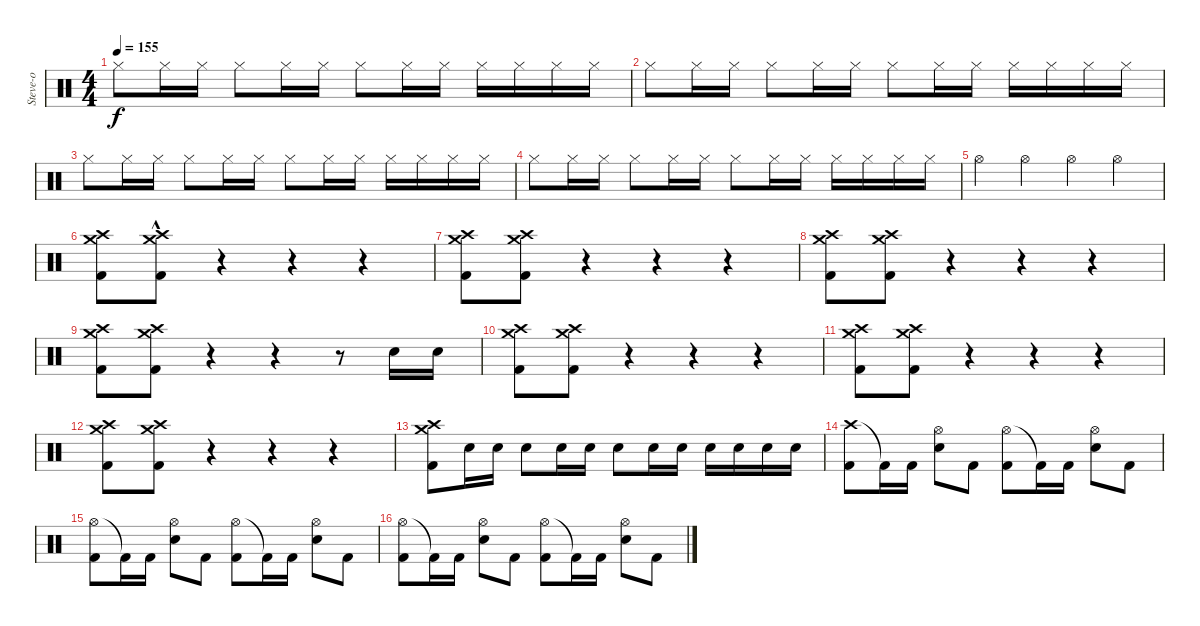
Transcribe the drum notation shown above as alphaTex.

\track ("Steve-o" "Steve-o") {instrument percussion}
\staff {score}
\articulation defaults
\ts (4 4)
\tempo 155
\clef neutral
\ks c "Hi-Hat (closed)".8{dy f} "Hi-Hat (closed)".16 "Hi-Hat (closed)".16 "Hi-Hat (closed)".8 "Hi-Hat (closed)".16 "Hi-Hat (closed)".16 "Hi-Hat (closed)".8 "Hi-Hat (closed)".16 "Hi-Hat (closed)".16 "Hi-Hat (closed)".16 "Hi-Hat (closed)".16 "Hi-Hat (closed)".16 "Hi-Hat (closed)".16
|
"Hi-Hat (closed)".8 "Hi-Hat (closed)".16 "Hi-Hat (closed)".16 "Hi-Hat (closed)".8 "Hi-Hat (closed)".16 "Hi-Hat (closed)".16 "Hi-Hat (closed)".8 "Hi-Hat (closed)".16 "Hi-Hat (closed)".16 "Hi-Hat (closed)".16 "Hi-Hat (closed)".16 "Hi-Hat (closed)".16 "Hi-Hat (closed)".16 |
"Hi-Hat (closed)".8 "Hi-Hat (closed)".16 "Hi-Hat (closed)".16 "Hi-Hat (closed)".8 "Hi-Hat (closed)".16 "Hi-Hat (closed)".16 "Hi-Hat (closed)".8 "Hi-Hat (closed)".16 "Hi-Hat (closed)".16 "Hi-Hat (closed)".16 "Hi-Hat (closed)".16 "Hi-Hat (closed)".16 "Hi-Hat (closed)".16 |
"Hi-Hat (closed)".8 "Hi-Hat (closed)".16 "Hi-Hat (closed)".16 "Hi-Hat (closed)".8 "Hi-Hat (closed)".16 "Hi-Hat (closed)".16 "Hi-Hat (closed)".8 "Hi-Hat (closed)".16 "Hi-Hat (closed)".16 "Hi-Hat (closed)".16 "Hi-Hat (closed)".16 "Hi-Hat (closed)".16 "Hi-Hat (closed)".16 |
"Hi-Hat (open)".4 "Hi-Hat (open)".4 "Hi-Hat (open)".4 "Hi-Hat (open)".4 |
("Crash high (hit)" "Crash medium (hit)" "Kick (hit) 2").8 ("Crash high (hit)" "Crash medium (hit)"{hac} "Kick (hit) 2"{hac}).8 r.4 r.4 r.4 |
("Crash high (hit)" "Crash medium (hit)" "Kick (hit) 2").8 ("Crash high (hit)" "Crash medium (hit)" "Kick (hit) 2").8 r.4 r.4 r.4 |
("Crash high (hit)" "Crash medium (hit)" "Kick (hit) 2").8 ("Crash high (hit)" "Crash medium (hit)" "Kick (hit) 2").8 r.4 r.4 r.4 |
("Crash high (hit)" "Crash medium (hit)" "Kick (hit) 2").8 ("Crash high (hit)" "Crash medium (hit)" "Kick (hit) 2").8 r.4 r.4 r.8 "Electric Snare (hit)".16 "Electric Snare (hit)".16 |
("Crash high (hit)" "Crash medium (hit)" "Kick (hit) 2").8 ("Crash high (hit)" "Crash medium (hit)" "Kick (hit) 2").8 r.4 r.4 r.4 |
("Crash high (hit)" "Crash medium (hit)" "Kick (hit) 2").8 ("Crash high (hit)" "Crash medium (hit)" "Kick (hit) 2").8 r.4 r.4 r.4 |
("Crash high (hit)" "Crash medium (hit)" "Kick (hit) 2").8 ("Crash high (hit)" "Crash medium (hit)" "Kick (hit) 2").8 r.4 r.4 r.4 |
("Crash high (hit)" "Crash medium (hit)" "Kick (hit) 2").8 "Electric Snare (hit)".16 "Electric Snare (hit)".16 "Electric Snare (hit)".8 "Electric Snare (hit)".16 "Electric Snare (hit)".16 "Electric Snare (hit)".8 "Electric Snare (hit)".16 "Electric Snare (hit)".16 "Electric Snare (hit)".16 "Electric Snare (hit)".16 "Electric Snare (hit)".16 "Electric Snare (hit)".16 |
("Crash high (hit)" "Kick (hit) 2").8 "Kick (hit) 2"{t}.16 "Kick (hit) 2".16 ("Hi-Hat (open)" "Electric Snare (hit)").8 "Kick (hit) 2".8 ("Hi-Hat (open)" "Kick (hit) 2").8 "Kick (hit) 2"{t}.16 "Kick (hit) 2".16 ("Hi-Hat (open)" "Electric Snare (hit)").8 "Kick (hit) 2".8 |
("Hi-Hat (open)" "Kick (hit) 2").8 "Kick (hit) 2"{t}.16 "Kick (hit) 2".16 ("Hi-Hat (open)" "Electric Snare (hit)").8 "Kick (hit) 2".8 ("Hi-Hat (open)" "Kick (hit) 2").8 "Kick (hit) 2"{t}.16 "Kick (hit) 2".16 ("Hi-Hat (open)" "Electric Snare (hit)").8 "Kick (hit) 2".8 |
("Hi-Hat (open)" "Kick (hit) 2").8 "Kick (hit) 2"{t}.16 "Kick (hit) 2".16 ("Hi-Hat (open)" "Electric Snare (hit)").8 "Kick (hit) 2".8 ("Hi-Hat (open)" "Kick (hit) 2").8 "Kick (hit) 2"{t}.16 "Kick (hit) 2".16 ("Hi-Hat (open)" "Electric Snare (hit)").8 "Kick (hit) 2".8
